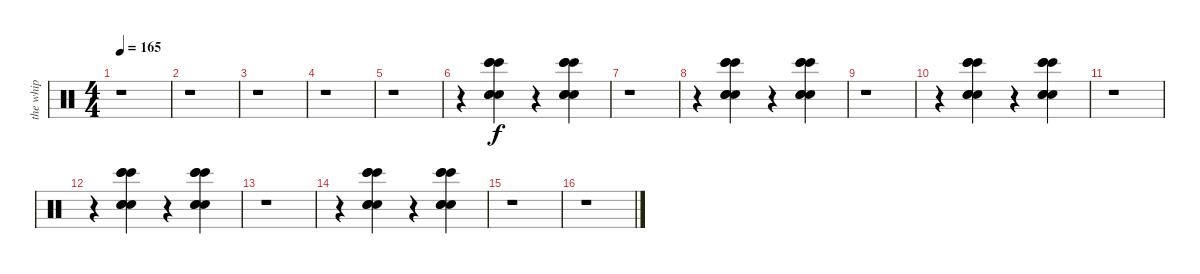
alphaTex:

\track ("the whip " "the whip ") {instrument percussion}
\staff {score}
\articulation defaults
\ts (4 4)
\tempo 165
\clef neutral
\ks c
r.1{dy f} |
r.1 |
r.1 |
r.1 |
r.1 |
r.4 ("Hand Clap (hit)" "Hand Clap (hit)" "Hand Clap (hit)" "Bongo High (hit)" "Bongo High (hit)" "Bongo High (hit)").4 r.4 ("Hand Clap (hit)" "Hand Clap (hit)" "Hand Clap (hit)" "Bongo High (hit)" "Bongo High (hit)" "Bongo High (hit)").4 |
r.1 |
r.4 ("Hand Clap (hit)" "Hand Clap (hit)" "Hand Clap (hit)" "Bongo High (hit)" "Bongo High (hit)" "Bongo High (hit)").4 r.4 ("Hand Clap (hit)" "Hand Clap (hit)" "Hand Clap (hit)" "Bongo High (hit)" "Bongo High (hit)" "Bongo High (hit)").4 |
r.1 |
r.4 ("Hand Clap (hit)" "Hand Clap (hit)" "Hand Clap (hit)" "Bongo High (hit)" "Bongo High (hit)" "Bongo High (hit)").4 r.4 ("Hand Clap (hit)" "Hand Clap (hit)" "Hand Clap (hit)" "Bongo High (hit)" "Bongo High (hit)" "Bongo High (hit)").4 |
r.1 |
r.4 ("Hand Clap (hit)" "Hand Clap (hit)" "Hand Clap (hit)" "Bongo High (hit)" "Bongo High (hit)" "Bongo High (hit)").4 r.4 ("Hand Clap (hit)" "Hand Clap (hit)" "Hand Clap (hit)" "Bongo High (hit)" "Bongo High (hit)" "Bongo High (hit)").4 |
r.1 |
r.4 ("Hand Clap (hit)" "Hand Clap (hit)" "Hand Clap (hit)" "Bongo High (hit)" "Bongo High (hit)" "Bongo High (hit)").4 r.4 ("Hand Clap (hit)" "Hand Clap (hit)" "Hand Clap (hit)" "Bongo High (hit)" "Bongo High (hit)" "Bongo High (hit)").4 |
r.1 |
r.1
